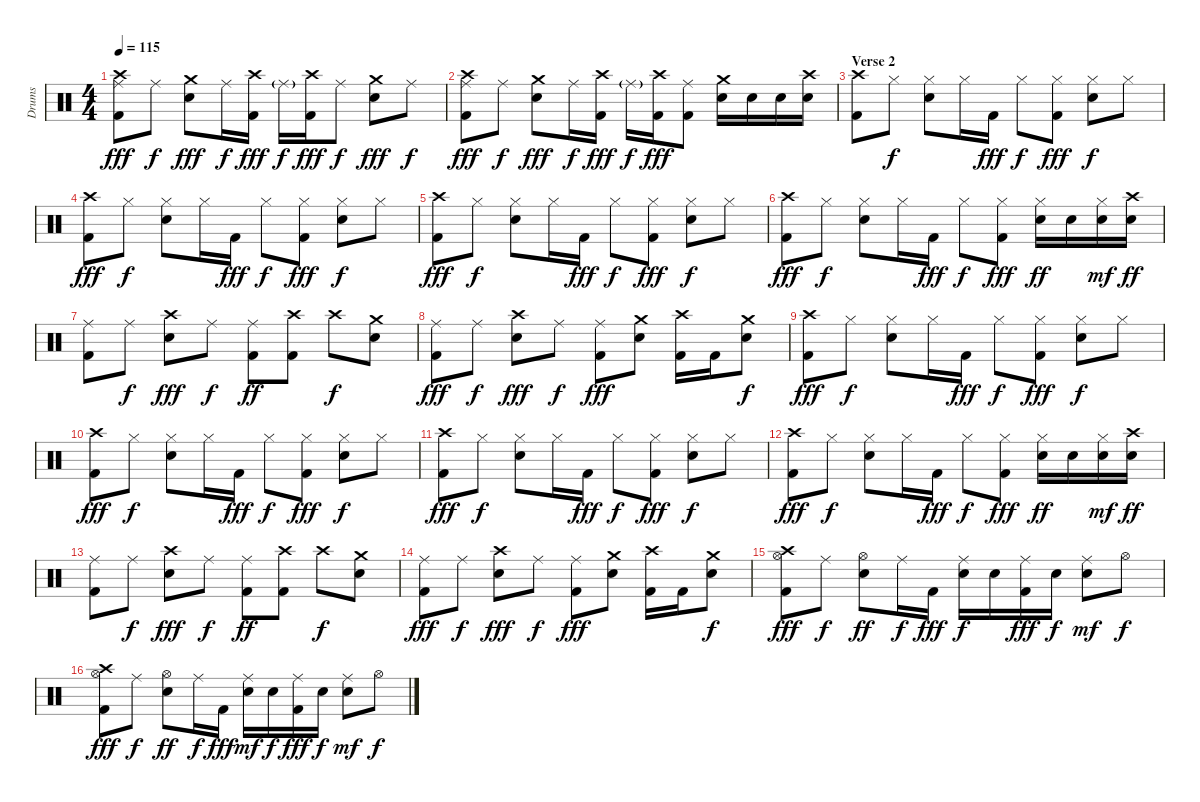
\track ("Drums" "Drums") {instrument percussion}
\staff {score}
\articulation defaults
\ts (4 4)
\tempo 115
\clef neutral
\ks c
("Ride (middle)" "Crash high (hit)" "Kick (hit) 2").8{dy fff} "Ride (middle)".8{dy f} ("Crash medium (hit)" "Electric Snare (hit)").8{dy fff} "Ride (middle)".16{dy f} ("Crash high (hit)" "Kick (hit) 2").16{dy fff} "Ride (middle)"{g}.16{dy f} ("Crash high (hit)" "Kick (hit) 2").16{dy fff} "Ride (middle)".8{dy f} ("Crash medium (hit)" "Electric Snare (hit)").8{dy fff} "Ride (middle)".8{dy f} |
("Ride (middle)" "Crash high (hit)" "Kick (hit) 2").8{dy fff} "Ride (middle)".8{dy f} ("Crash medium (hit)" "Electric Snare (hit)").8{dy fff} "Ride (middle)".16{dy f} ("Crash high (hit)" "Kick (hit) 2").16{dy fff} "Ride (middle)"{g}.16{dy f} ("Crash high (hit)" "Kick (hit) 2").16{dy fff} ("Ride (middle)" "Kick (hit) 2").8 ("Crash medium (hit)" "Electric Snare (hit)").16 "Electric Snare (hit)".16 "Electric Snare (hit)".16 ("Crash high (hit)" "Electric Snare (hit)").16 |
\section ("" "Verse 2")
("Crash high (hit)" "Kick (hit) 2").8 "Hi-Hat (closed)".8{dy f} ("Hi-Hat (closed)" "Electric Snare (hit)").8 "Hi-Hat (closed)".16 "Kick (hit) 2".16{dy fff} "Hi-Hat (closed)".8{dy f} ("Hi-Hat (closed)" "Kick (hit) 2").8{dy fff} ("Hi-Hat (closed)" "Electric Snare (hit)").8{dy f} "Hi-Hat (closed)".8 |
("Crash high (hit)" "Kick (hit) 2").8{dy fff} "Hi-Hat (closed)".8{dy f} ("Hi-Hat (closed)" "Electric Snare (hit)").8 "Hi-Hat (closed)".16 "Kick (hit) 2".16{dy fff} "Hi-Hat (closed)".8{dy f} ("Hi-Hat (closed)" "Kick (hit) 2").8{dy fff} ("Hi-Hat (closed)" "Electric Snare (hit)").8{dy f} "Hi-Hat (closed)".8 |
("Crash high (hit)" "Kick (hit) 2").8{dy fff} "Hi-Hat (closed)".8{dy f} ("Hi-Hat (closed)" "Electric Snare (hit)").8 "Hi-Hat (closed)".16 "Kick (hit) 2".16{dy fff} "Hi-Hat (closed)".8{dy f} ("Hi-Hat (closed)" "Kick (hit) 2").8{dy fff} ("Hi-Hat (closed)" "Electric Snare (hit)").8{dy f} "Hi-Hat (closed)".8 |
("Crash high (hit)" "Kick (hit) 2").8{dy fff} "Hi-Hat (closed)".8{dy f} ("Hi-Hat (closed)" "Electric Snare (hit)").8 "Hi-Hat (closed)".16 "Kick (hit) 2".16{dy fff} "Hi-Hat (closed)".8{dy f} ("Hi-Hat (closed)" "Kick (hit) 2").8{dy fff} ("Hi-Hat (closed)" "Electric Snare (hit)").16{dy ff} "Electric Snare (hit)".16 ("Hi-Hat (closed)" "Snare (hit) 2").16{dy mf} ("Crash high (hit)" "Electric Snare (hit)").16{dy ff} |
("Ride (middle)" "Kick (hit) 2").8 "Ride (middle)".8{dy f} ("Crash high (hit)" "Electric Snare (hit)").8{dy fff} "Ride (middle)".8{dy f} ("Ride (middle)" "Kick (hit) 2").8{dy ff} ("Crash high (hit)" "Kick (hit) 2").8 "Crash high (hit)".8{dy f} ("Crash medium (hit)" "Snare (hit) 2").8 |
("Ride (middle)" "Kick (hit) 2").8{dy fff} "Ride (middle)".8{dy f} ("Crash high (hit)" "Electric Snare (hit)").8{dy fff} "Ride (middle)".8{dy f} ("Ride (middle)" "Kick (hit) 2").8{dy fff} ("Crash medium (hit)" "Electric Snare (hit)").8 ("Crash high (hit)" "Kick (hit) 2").16 "Kick (hit) 2".16 ("Crash medium (hit)" "Snare (hit) 2").8{dy f} |
("Crash high (hit)" "Kick (hit) 2").8{dy fff} "Hi-Hat (closed)".8{dy f} ("Hi-Hat (closed)" "Electric Snare (hit)").8 "Hi-Hat (closed)".16 "Kick (hit) 2".16{dy fff} "Hi-Hat (closed)".8{dy f} ("Hi-Hat (closed)" "Kick (hit) 2").8{dy fff} ("Hi-Hat (closed)" "Electric Snare (hit)").8{dy f} "Hi-Hat (closed)".8 |
("Crash high (hit)" "Kick (hit) 2").8{dy fff} "Hi-Hat (closed)".8{dy f} ("Hi-Hat (closed)" "Electric Snare (hit)").8 "Hi-Hat (closed)".16 "Kick (hit) 2".16{dy fff} "Hi-Hat (closed)".8{dy f} ("Hi-Hat (closed)" "Kick (hit) 2").8{dy fff} ("Hi-Hat (closed)" "Electric Snare (hit)").8{dy f} "Hi-Hat (closed)".8 |
("Crash high (hit)" "Kick (hit) 2").8{dy fff} "Hi-Hat (closed)".8{dy f} ("Hi-Hat (closed)" "Electric Snare (hit)").8 "Hi-Hat (closed)".16 "Kick (hit) 2".16{dy fff} "Hi-Hat (closed)".8{dy f} ("Hi-Hat (closed)" "Kick (hit) 2").8{dy fff} ("Hi-Hat (closed)" "Electric Snare (hit)").8{dy f} "Hi-Hat (closed)".8 |
("Crash high (hit)" "Kick (hit) 2").8{dy fff} "Hi-Hat (closed)".8{dy f} ("Hi-Hat (closed)" "Electric Snare (hit)").8 "Hi-Hat (closed)".16 "Kick (hit) 2".16{dy fff} "Hi-Hat (closed)".8{dy f} ("Hi-Hat (closed)" "Kick (hit) 2").8{dy fff} ("Hi-Hat (closed)" "Electric Snare (hit)").16{dy ff} "Electric Snare (hit)".16 ("Hi-Hat (closed)" "Snare (hit) 2").16{dy mf} ("Crash high (hit)" "Electric Snare (hit)").16{dy ff} |
("Ride (middle)" "Kick (hit) 2").8 "Ride (middle)".8{dy f} ("Crash high (hit)" "Electric Snare (hit)").8{dy fff} "Ride (middle)".8{dy f} ("Ride (middle)" "Kick (hit) 2").8{dy ff} ("Crash high (hit)" "Kick (hit) 2").8 "Crash high (hit)".8{dy f} ("Crash medium (hit)" "Snare (hit) 2").8 |
("Ride (middle)" "Kick (hit) 2").8{dy fff} "Ride (middle)".8{dy f} ("Crash high (hit)" "Electric Snare (hit)").8{dy fff} "Ride (middle)".8{dy f} ("Ride (middle)" "Kick (hit) 2").8{dy fff} ("Crash medium (hit)" "Electric Snare (hit)").8 ("Crash high (hit)" "Kick (hit) 2").16 "Kick (hit) 2".16 ("Crash medium (hit)" "Snare (hit) 2").8{dy f} |
("Hi-Hat (open)" "Crash high (hit)" "Kick (hit) 2").8{dy fff} "Ride (middle)".8{dy f} ("Hi-Hat (open)" "Electric Snare (hit)").8{dy ff} "Ride (middle)".16{dy f} "Kick (hit) 2".16{dy fff} ("Ride (middle)" "Electric Snare (hit)").16{dy f} "Electric Snare (hit)".16 ("Ride (middle)" "Kick (hit) 2").16{dy fff} "Electric Snare (hit)".16{dy f} ("Ride (middle)" "Snare (hit) 2").8{dy mf} "Hi-Hat (open)".8{dy f} |
("Hi-Hat (open)" "Crash high (hit)" "Kick (hit) 2").8{dy fff} "Ride (middle)".8{dy f} ("Hi-Hat (open)" "Electric Snare (hit)").8{dy ff} "Ride (middle)".16{dy f} "Kick (hit) 2".16{dy fff} ("Ride (middle)" "Snare (hit) 2").16{dy mf} "Electric Snare (hit)".16{dy f} ("Ride (middle)" "Kick (hit) 2").16{dy fff} "Electric Snare (hit)".16{dy f} ("Ride (middle)" "Snare (hit) 2").8{dy mf} "Hi-Hat (open)".8{dy f}
